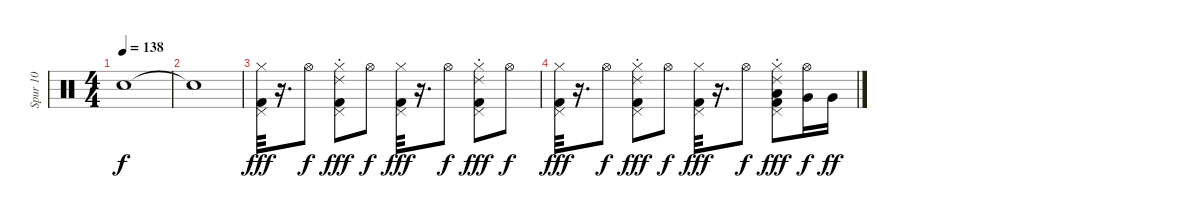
\track ("Spur 10" "Spur 10") {instrument percussion}
\staff {score}
\articulation defaults
\ts (4 4)
\tempo 138
\clef neutral
\ks c "Snare (hit)"{t}.1{dy f}
|
"Snare (hit)"{t}.1 |
("Pedal Hi-Hat (hit)" "Kick (hit) 2" "Hi-Hat (closed)").32{dy fff} r.16{d} "Hi-Hat (open)".8{dy f} ("Ride (choke) 2" "Pedal Hi-Hat (hit)" "Kick (hit) 2" "Hi-Hat (closed)").8{dy fff} "Hi-Hat (open)".8{dy f} ("Pedal Hi-Hat (hit)" "Kick (hit) 2" "Hi-Hat (closed)").32{dy fff} r.16{d} "Hi-Hat (open)".8{dy f} ("Ride (choke) 2" "Pedal Hi-Hat (hit)" "Kick (hit) 2" "Hi-Hat (closed)").8{dy fff} "Hi-Hat (open)".8{dy f} |
("Pedal Hi-Hat (hit)" "Kick (hit) 2" "Hi-Hat (closed)").32{dy fff} r.16{d} "Hi-Hat (open)".8{dy f} ("Ride (choke) 2" "Pedal Hi-Hat (hit)" "Kick (hit) 2" "Hi-Hat (closed)").8{dy fff} "Hi-Hat (open)".8{dy f} ("Pedal Hi-Hat (hit)" "Kick (hit) 2" "Hi-Hat (closed)").32{dy fff} r.16{d} "Hi-Hat (open)".8{dy f} ("Ride (choke) 2" "Pedal Hi-Hat (hit)" "Kick (hit) 2" "Hi-Hat (closed)" "Low Tom (hit)").8{dy fff} ("Hi-Hat (open)" "Very Low Tom (hit)").16{dy f} "Very Low Tom (hit)".16{dy ff}
